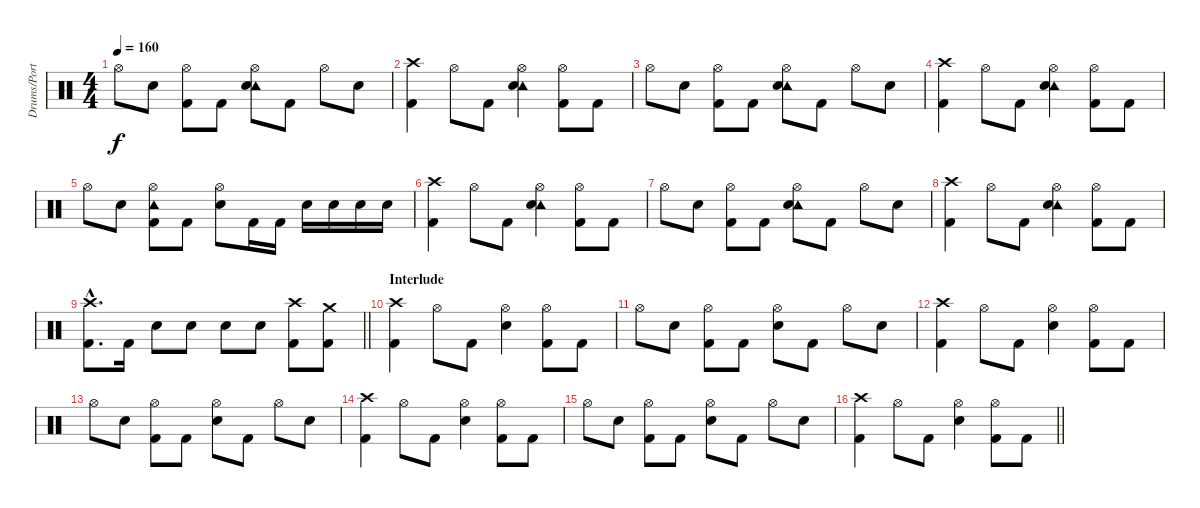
\track ("Drums/Portnoy" "Drums/Port") {instrument percussion}
\staff {score}
\articulation defaults
\ts (4 4)
\tempo 160
\clef neutral
\ks c "Hi-Hat (open)".8{dy f} "Electric Snare (hit)".8
("Hi-Hat (open)" "Kick (hit) 2").8 "Kick (hit) 2".8 ("Tambourine (hit)" "Hi-Hat (open)" "Electric Snare (hit)").8 "Kick (hit) 2".8 "Hi-Hat (open)".8 "Electric Snare (hit)".8 |
("Crash high (hit)" "Kick (hit) 2").4 "Hi-Hat (open)".8 "Kick (hit) 2".8 ("Tambourine (hit)" "Hi-Hat (open)" "Electric Snare (hit)").4 ("Hi-Hat (open)" "Kick (hit) 2").8 "Kick (hit) 2".8 |
"Hi-Hat (open)".8 "Electric Snare (hit)".8 ("Hi-Hat (open)" "Kick (hit) 2").8 "Kick (hit) 2".8 ("Tambourine (hit)" "Hi-Hat (open)" "Electric Snare (hit)").8 "Kick (hit) 2".8 "Hi-Hat (open)".8 "Electric Snare (hit)".8 |
("Crash high (hit)" "Kick (hit) 2").4 "Hi-Hat (open)".8 "Kick (hit) 2".8 ("Tambourine (hit)" "Hi-Hat (open)" "Electric Snare (hit)").4 ("Hi-Hat (open)" "Kick (hit) 2").8 "Kick (hit) 2".8 |
"Hi-Hat (open)".8 "Electric Snare (hit)".8 ("Tambourine (hit)" "Hi-Hat (open)" "Kick (hit) 2").8 "Kick (hit) 2".8 ("Hi-Hat (open)" "Electric Snare (hit)").8 "Kick (hit) 2".16 "Kick (hit) 2".16 "Electric Snare (hit)".16 "Electric Snare (hit)".16 "Electric Snare (hit)".16 "Electric Snare (hit)".16 |
("Crash high (hit)" "Kick (hit) 2").4 "Hi-Hat (open)".8 "Kick (hit) 2".8 ("Tambourine (hit)" "Hi-Hat (open)" "Electric Snare (hit)").4 ("Hi-Hat (open)" "Kick (hit) 2").8 "Kick (hit) 2".8 |
"Hi-Hat (open)".8 "Electric Snare (hit)".8 ("Hi-Hat (open)" "Kick (hit) 2").8 "Kick (hit) 2".8 ("Tambourine (hit)" "Hi-Hat (open)" "Electric Snare (hit)").8 "Kick (hit) 2".8 "Hi-Hat (open)".8 "Electric Snare (hit)".8 |
("Crash high (hit)" "Kick (hit) 2").4 "Hi-Hat (open)".8 "Kick (hit) 2".8 ("Tambourine (hit)" "Hi-Hat (open)" "Electric Snare (hit)").4 ("Hi-Hat (open)" "Kick (hit) 2").8 "Kick (hit) 2".8 |
\barLineRight lightlight
("Crash high (hit)"{hac} "Kick (hit) 2"{hac}).8{d} "Kick (hit) 2".16 "Electric Snare (hit)".8 "Electric Snare (hit)".8 "Electric Snare (hit)".8 "Electric Snare (hit)".8 ("Crash high (hit)" "Kick (hit) 2").8 ("Crash medium (hit)" "Kick (hit) 2").8 |
\section ("" "Interlude")
("Crash high (hit)" "Kick (hit) 2").4 "Hi-Hat (open)".8 "Kick (hit) 2".8 ("Hi-Hat (open)" "Electric Snare (hit)").4 ("Hi-Hat (open)" "Kick (hit) 2").8 "Kick (hit) 2".8 |
"Hi-Hat (open)".8 "Electric Snare (hit)".8 ("Hi-Hat (open)" "Kick (hit) 2").8 "Kick (hit) 2".8 ("Hi-Hat (open)" "Electric Snare (hit)").8 "Kick (hit) 2".8 "Hi-Hat (open)".8 "Electric Snare (hit)".8 |
("Crash high (hit)" "Kick (hit) 2").4 "Hi-Hat (open)".8 "Kick (hit) 2".8 ("Hi-Hat (open)" "Electric Snare (hit)").4 ("Hi-Hat (open)" "Kick (hit) 2").8 "Kick (hit) 2".8 |
"Hi-Hat (open)".8 "Electric Snare (hit)".8 ("Hi-Hat (open)" "Kick (hit) 2").8 "Kick (hit) 2".8 ("Hi-Hat (open)" "Electric Snare (hit)").8 "Kick (hit) 2".8 "Hi-Hat (open)".8 "Electric Snare (hit)".8 |
("Crash high (hit)" "Kick (hit) 2").4 "Hi-Hat (open)".8 "Kick (hit) 2".8 ("Hi-Hat (open)" "Electric Snare (hit)").4 ("Hi-Hat (open)" "Kick (hit) 2").8 "Kick (hit) 2".8 |
"Hi-Hat (open)".8 "Electric Snare (hit)".8 ("Hi-Hat (open)" "Kick (hit) 2").8 "Kick (hit) 2".8 ("Hi-Hat (open)" "Electric Snare (hit)").8 "Kick (hit) 2".8 "Hi-Hat (open)".8 "Electric Snare (hit)".8 |
\barLineRight lightlight
("Crash high (hit)" "Kick (hit) 2").4 "Hi-Hat (open)".8 "Kick (hit) 2".8 ("Hi-Hat (open)" "Electric Snare (hit)").4 ("Hi-Hat (open)" "Kick (hit) 2").8 "Kick (hit) 2".8
